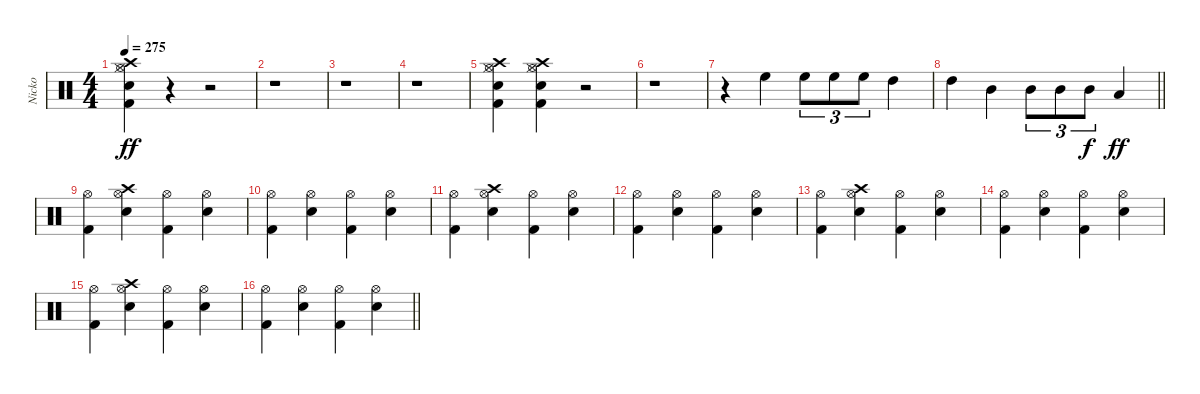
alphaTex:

\track ("Nicko" "Nicko") {instrument percussion}
\staff {score}
\articulation defaults
\ts (4 4)
\tempo 275
\clef neutral
\ks c
("Kick (hit) 2" "Snare (hit) 2" "Hi-Hat (closed)" "Hi-Hat (open)" "Crash high (hit)").4{dy ff} r.4 r.2 |
r.1 |
r.1 |
r.1 |
("Kick (hit) 2" "Snare (hit) 2" "Hi-Hat (closed)" "Hi-Hat (open)" "Crash high (hit)").4 ("Kick (hit) 2" "Snare (hit) 2" "Hi-Hat (closed)" "Hi-Hat (open)" "Crash high (hit)").4 r.2 |
r.1 |
r.4 "High Floor Tom (hit)".4 "High Floor Tom (hit)".8{tu (3 2)} "High Floor Tom (hit)".8{tu (3 2)} "High Floor Tom (hit)".8{tu (3 2)} "High Tom (hit)".4 |
\barLineRight lightlight "High Tom (hit)".4 "Mid Tom (hit)".4 "Mid Tom (hit)".8{tu (3 2)} "Mid Tom (hit)".8{tu (3 2)} "Mid Tom (hit)".8{tu (3 2) dy f} "Low Tom (hit)".4{dy ff}
|
\section ("" "")
("Kick (hit) 2" "Hi-Hat (open)").4 ("Snare (hit) 2" "Hi-Hat (open)" "Crash high (hit)").4 ("Kick (hit) 2" "Hi-Hat (open)").4 ("Snare (hit) 2" "Hi-Hat (open)").4 |
("Kick (hit) 2" "Hi-Hat (open)").4 ("Snare (hit) 2" "Hi-Hat (open)").4 ("Kick (hit) 2" "Hi-Hat (open)").4 ("Snare (hit) 2" "Hi-Hat (open)").4 |
("Kick (hit) 2" "Hi-Hat (open)").4 ("Snare (hit) 2" "Hi-Hat (open)" "Crash high (hit)").4 ("Kick (hit) 2" "Hi-Hat (open)").4 ("Snare (hit) 2" "Hi-Hat (open)").4 |
("Kick (hit) 2" "Hi-Hat (open)").4 ("Snare (hit) 2" "Hi-Hat (open)").4 ("Kick (hit) 2" "Hi-Hat (open)").4 ("Snare (hit) 2" "Hi-Hat (open)").4 |
("Kick (hit) 2" "Hi-Hat (open)").4 ("Snare (hit) 2" "Hi-Hat (open)" "Crash high (hit)").4 ("Kick (hit) 2" "Hi-Hat (open)").4 ("Snare (hit) 2" "Hi-Hat (open)").4 |
("Kick (hit) 2" "Hi-Hat (open)").4 ("Snare (hit) 2" "Hi-Hat (open)").4 ("Kick (hit) 2" "Hi-Hat (open)").4 ("Snare (hit) 2" "Hi-Hat (open)").4 |
("Kick (hit) 2" "Hi-Hat (open)").4 ("Snare (hit) 2" "Hi-Hat (open)" "Crash high (hit)").4 ("Kick (hit) 2" "Hi-Hat (open)").4 ("Snare (hit) 2" "Hi-Hat (open)").4 |
\barLineRight lightlight
("Kick (hit) 2" "Hi-Hat (open)").4 ("Snare (hit) 2" "Hi-Hat (open)").4 ("Kick (hit) 2" "Hi-Hat (open)").4 ("Snare (hit) 2" "Hi-Hat (open)").4
